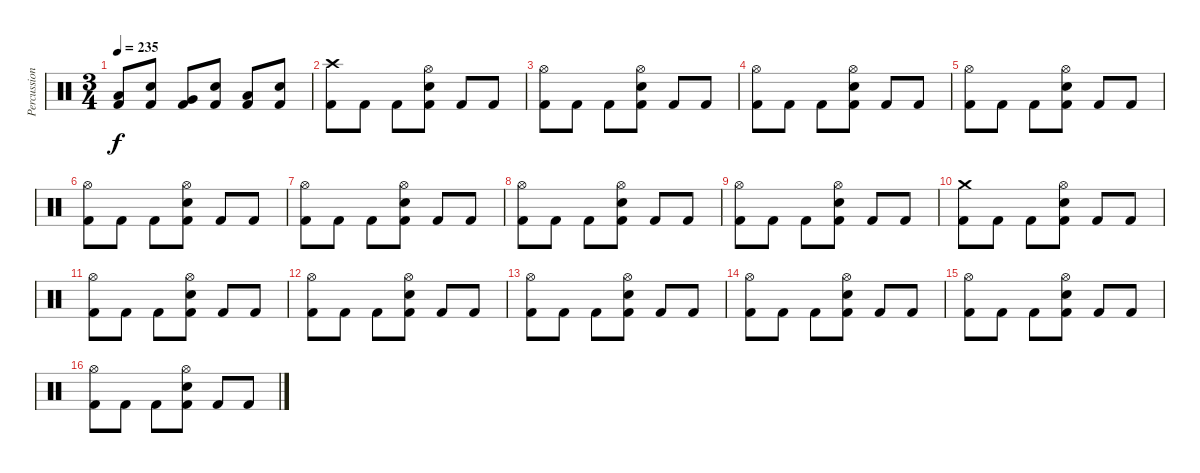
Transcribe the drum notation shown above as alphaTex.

\track ("Percussion" "Percussion") {instrument percussion}
\staff {score}
\articulation defaults
\ts (3 4)
\tempo 235
\clef neutral
\ks c
("Low Tom (hit)" "Kick (hit) 2").8{dy f} ("Electric Snare (hit)" "Kick (hit) 2").8 ("Very Low Tom (hit)" "Kick (hit) 2").8 ("Electric Snare (hit)" "Kick (hit) 2").8 ("Low Floor Tom (hit)" "Kick (hit) 2").8 ("Electric Snare (hit)" "Kick (hit) 2").8 |
("Crash high (hit)" "Kick (hit) 2").8 "Kick (hit) 2".8 "Kick (hit) 2".8 ("Hi-Hat (open)" "Electric Snare (hit)" "Kick (hit) 2").8 "Kick (hit) 2".8 "Kick (hit) 2".8 |
("Hi-Hat (open)" "Kick (hit) 2").8 "Kick (hit) 2".8 "Kick (hit) 2".8 ("Hi-Hat (open)" "Electric Snare (hit)" "Kick (hit) 2").8 "Kick (hit) 2".8 "Kick (hit) 2".8 |
("Hi-Hat (open)" "Kick (hit) 2").8 "Kick (hit) 2".8 "Kick (hit) 2".8 ("Hi-Hat (open)" "Electric Snare (hit)" "Kick (hit) 2").8 "Kick (hit) 2".8 "Kick (hit) 2".8 |
("Hi-Hat (open)" "Kick (hit) 2").8 "Kick (hit) 2".8 "Kick (hit) 2".8 ("Hi-Hat (open)" "Electric Snare (hit)" "Kick (hit) 2").8 "Kick (hit) 2".8 "Kick (hit) 2".8 |
("Hi-Hat (open)" "Kick (hit) 2").8 "Kick (hit) 2".8 "Kick (hit) 2".8 ("Hi-Hat (open)" "Electric Snare (hit)" "Kick (hit) 2").8 "Kick (hit) 2".8 "Kick (hit) 2".8 |
("Hi-Hat (open)" "Kick (hit) 2").8 "Kick (hit) 2".8 "Kick (hit) 2".8 ("Hi-Hat (open)" "Electric Snare (hit)" "Kick (hit) 2").8 "Kick (hit) 2".8 "Kick (hit) 2".8 |
("Hi-Hat (open)" "Kick (hit) 2").8 "Kick (hit) 2".8 "Kick (hit) 2".8 ("Hi-Hat (open)" "Electric Snare (hit)" "Kick (hit) 2").8 "Kick (hit) 2".8 "Kick (hit) 2".8 |
("Hi-Hat (open)" "Kick (hit) 2").8 "Kick (hit) 2".8 "Kick (hit) 2".8 ("Hi-Hat (open)" "Electric Snare (hit)" "Kick (hit) 2").8 "Kick (hit) 2".8 "Kick (hit) 2".8 |
("Crash medium (hit)" "Kick (hit) 2").8 "Kick (hit) 2".8 "Kick (hit) 2".8 ("Hi-Hat (open)" "Electric Snare (hit)" "Kick (hit) 2").8 "Kick (hit) 2".8 "Kick (hit) 2".8 |
("Hi-Hat (open)" "Kick (hit) 2").8 "Kick (hit) 2".8 "Kick (hit) 2".8 ("Hi-Hat (open)" "Electric Snare (hit)" "Kick (hit) 2").8 "Kick (hit) 2".8 "Kick (hit) 2".8 |
("Hi-Hat (open)" "Kick (hit) 2").8 "Kick (hit) 2".8 "Kick (hit) 2".8 ("Hi-Hat (open)" "Electric Snare (hit)" "Kick (hit) 2").8 "Kick (hit) 2".8 "Kick (hit) 2".8 |
("Hi-Hat (open)" "Kick (hit) 2").8 "Kick (hit) 2".8 "Kick (hit) 2".8 ("Hi-Hat (open)" "Electric Snare (hit)" "Kick (hit) 2").8 "Kick (hit) 2".8 "Kick (hit) 2".8 |
("Hi-Hat (open)" "Kick (hit) 2").8 "Kick (hit) 2".8 "Kick (hit) 2".8 ("Hi-Hat (open)" "Electric Snare (hit)" "Kick (hit) 2").8 "Kick (hit) 2".8 "Kick (hit) 2".8 |
("Hi-Hat (open)" "Kick (hit) 2").8 "Kick (hit) 2".8 "Kick (hit) 2".8 ("Hi-Hat (open)" "Electric Snare (hit)" "Kick (hit) 2").8 "Kick (hit) 2".8 "Kick (hit) 2".8 |
("Hi-Hat (open)" "Kick (hit) 2").8 "Kick (hit) 2".8 "Kick (hit) 2".8 ("Hi-Hat (open)" "Electric Snare (hit)" "Kick (hit) 2").8 "Kick (hit) 2".8 "Kick (hit) 2".8
